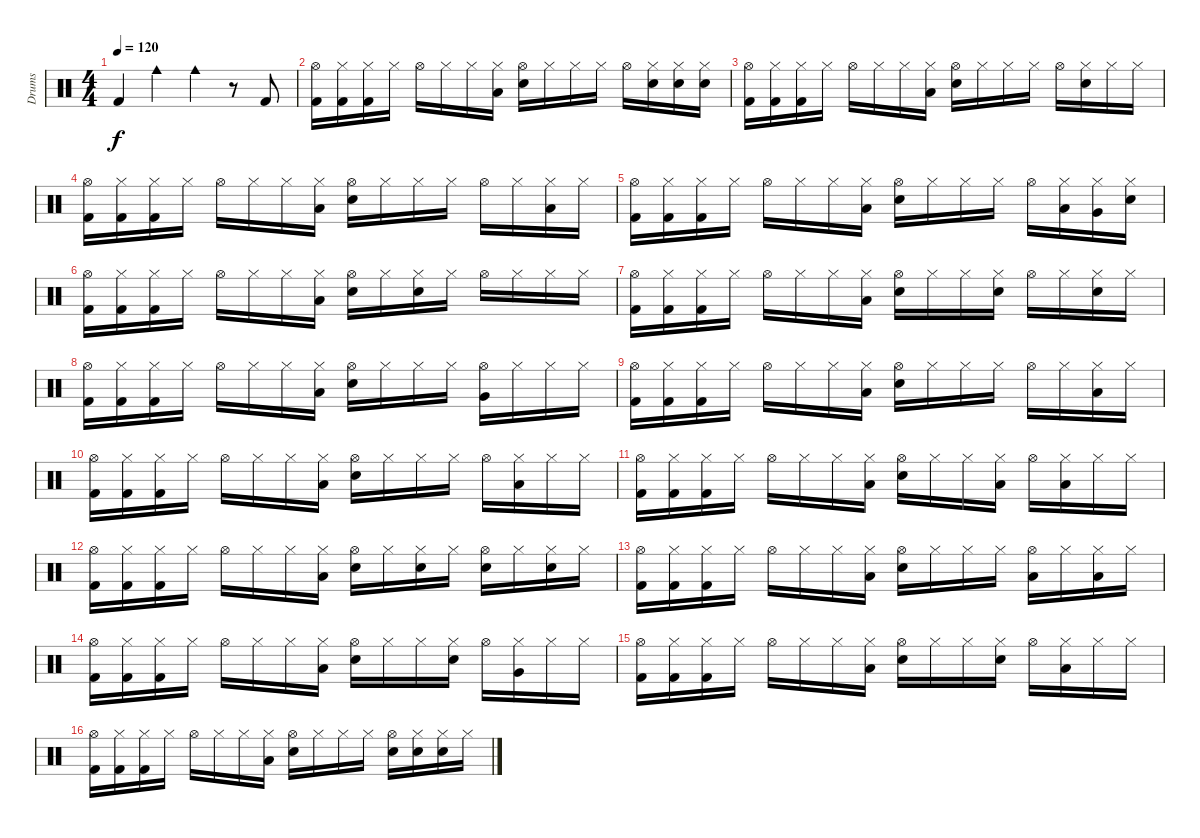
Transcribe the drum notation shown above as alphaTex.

\track ("Drums" "Drums") {instrument percussion}
\staff {score}
\articulation defaults
\ts (4 4)
\tempo 120
\clef neutral
\ks c "Kick (hit) 2".4{dy f} "Cowbell medium (hit)".4 "Cowbell medium (hit)".4
r.8 "Kick (hit) 2".8 |
("Kick (hit) 2" "Hi-Hat (open)").16 ("Kick (hit) 2" "Hi-Hat (closed)").16 ("Kick (hit) 2" "Hi-Hat (closed)").16 "Hi-Hat (closed)".16 "Hi-Hat (open)".16 "Hi-Hat (closed)".16 "Hi-Hat (closed)".16 ("Hi-Hat (closed)" "Low Floor Tom (hit)").16 ("Hi-Hat (open)" "Snare (hit) 2").16 "Hi-Hat (closed)".16 "Hi-Hat (closed)".16 "Hi-Hat (closed)".16 "Hi-Hat (open)".16 ("Electric Snare (hit)" "Hi-Hat (closed)").16 ("Snare (hit) 2" "Hi-Hat (closed)").16 ("Snare (hit) 2" "Hi-Hat (closed)").16 |
("Hi-Hat (open)" "Kick (hit) 2").16 ("Kick (hit) 2" "Hi-Hat (closed)").16 ("Kick (hit) 2" "Hi-Hat (closed)").16 "Hi-Hat (closed)".16 "Hi-Hat (open)".16 "Hi-Hat (closed)".16 "Hi-Hat (closed)".16 ("Hi-Hat (closed)" "Low Floor Tom (hit)").16 ("Hi-Hat (open)" "Snare (hit) 2").16 "Hi-Hat (closed)".16 "Hi-Hat (closed)".16 "Hi-Hat (closed)".16 "Hi-Hat (open)".16 ("Snare (hit) 2" "Hi-Hat (closed)").16 "Hi-Hat (closed)".16 "Hi-Hat (closed)".16 |
("Hi-Hat (open)" "Kick (hit) 2").16 ("Kick (hit) 2" "Hi-Hat (closed)").16 ("Kick (hit) 2" "Hi-Hat (closed)").16 "Hi-Hat (closed)".16 "Hi-Hat (open)".16 "Hi-Hat (closed)".16 "Hi-Hat (closed)".16 ("Hi-Hat (closed)" "Low Floor Tom (hit)").16 ("Hi-Hat (open)" "Snare (hit) 2").16 "Hi-Hat (closed)".16 "Hi-Hat (closed)".16 "Hi-Hat (closed)".16 "Hi-Hat (open)".16 "Hi-Hat (closed)".16 ("Low Tom (hit)" "Hi-Hat (closed)").16 "Hi-Hat (closed)".16 |
("Hi-Hat (open)" "Kick (hit) 2").16 ("Kick (hit) 2" "Hi-Hat (closed)").16 ("Kick (hit) 2" "Hi-Hat (closed)").16 "Hi-Hat (closed)".16 "Hi-Hat (open)".16 "Hi-Hat (closed)".16 "Hi-Hat (closed)".16 ("Hi-Hat (closed)" "Low Floor Tom (hit)").16 ("Hi-Hat (open)" "Snare (hit) 2").16 "Hi-Hat (closed)".16 "Hi-Hat (closed)".16 "Hi-Hat (closed)".16 "Hi-Hat (open)".16 ("Low Floor Tom (hit)" "Hi-Hat (closed)").16 ("Very Low Tom (hit)" "Hi-Hat (closed)").16 ("Snare (hit) 2" "Hi-Hat (closed)").16 |
("Hi-Hat (open)" "Kick (hit) 2").16 ("Kick (hit) 2" "Hi-Hat (closed)").16 ("Kick (hit) 2" "Hi-Hat (closed)").16 "Hi-Hat (closed)".16 "Hi-Hat (open)".16 "Hi-Hat (closed)".16 "Hi-Hat (closed)".16 ("Hi-Hat (closed)" "Low Floor Tom (hit)").16 ("Hi-Hat (open)" "Snare (hit) 2").16 "Hi-Hat (closed)".16 ("Electric Snare (hit)" "Hi-Hat (closed)").16 "Hi-Hat (closed)".16 "Hi-Hat (open)".16 "Hi-Hat (closed)".16 "Hi-Hat (closed)".16 "Hi-Hat (closed)".16 |
("Hi-Hat (open)" "Kick (hit) 2").16 ("Kick (hit) 2" "Hi-Hat (closed)").16 ("Kick (hit) 2" "Hi-Hat (closed)").16 "Hi-Hat (closed)".16 "Hi-Hat (open)".16 "Hi-Hat (closed)".16 "Hi-Hat (closed)".16 ("Hi-Hat (closed)" "Low Floor Tom (hit)").16 ("Hi-Hat (open)" "Snare (hit) 2").16 "Hi-Hat (closed)".16 "Hi-Hat (closed)".16 ("Snare (hit) 2" "Hi-Hat (closed)").16 "Hi-Hat (open)".16 "Hi-Hat (closed)".16 ("Snare (hit) 2" "Hi-Hat (closed)").16 "Hi-Hat (closed)".16 |
("Hi-Hat (open)" "Kick (hit) 2").16 ("Kick (hit) 2" "Hi-Hat (closed)").16 ("Kick (hit) 2" "Hi-Hat (closed)").16 "Hi-Hat (closed)".16 "Hi-Hat (open)".16 "Hi-Hat (closed)".16 "Hi-Hat (closed)".16 ("Hi-Hat (closed)" "Low Floor Tom (hit)").16 ("Hi-Hat (open)" "Snare (hit) 2").16 "Hi-Hat (closed)".16 "Hi-Hat (closed)".16 "Hi-Hat (closed)".16 ("Very Low Tom (hit)" "Hi-Hat (open)").16 "Hi-Hat (closed)".16 "Hi-Hat (closed)".16 "Hi-Hat (closed)".16 |
("Hi-Hat (open)" "Kick (hit) 2").16 ("Kick (hit) 2" "Hi-Hat (closed)").16 ("Kick (hit) 2" "Hi-Hat (closed)").16 "Hi-Hat (closed)".16 "Hi-Hat (open)".16 "Hi-Hat (closed)".16 "Hi-Hat (closed)".16 ("Hi-Hat (closed)" "Low Floor Tom (hit)").16 ("Hi-Hat (open)" "Snare (hit) 2").16 "Hi-Hat (closed)".16 "Hi-Hat (closed)".16 "Hi-Hat (closed)".16 "Hi-Hat (open)".16 "Hi-Hat (closed)".16 ("Low Floor Tom (hit)" "Hi-Hat (closed)").16 "Hi-Hat (closed)".16 |
("Hi-Hat (open)" "Kick (hit) 2").16 ("Kick (hit) 2" "Hi-Hat (closed)").16 ("Kick (hit) 2" "Hi-Hat (closed)").16 "Hi-Hat (closed)".16 "Hi-Hat (open)".16 "Hi-Hat (closed)".16 "Hi-Hat (closed)".16 ("Hi-Hat (closed)" "Low Floor Tom (hit)").16 ("Hi-Hat (open)" "Snare (hit) 2").16 "Hi-Hat (closed)".16 "Hi-Hat (closed)".16 "Hi-Hat (closed)".16 "Hi-Hat (open)".16 ("Low Tom (hit)" "Hi-Hat (closed)").16 "Hi-Hat (closed)".16 "Hi-Hat (closed)".16 |
("Hi-Hat (open)" "Kick (hit) 2").16 ("Kick (hit) 2" "Hi-Hat (closed)").16 ("Kick (hit) 2" "Hi-Hat (closed)").16 "Hi-Hat (closed)".16 "Hi-Hat (open)".16 "Hi-Hat (closed)".16 "Hi-Hat (closed)".16 ("Hi-Hat (closed)" "Low Floor Tom (hit)").16 ("Hi-Hat (open)" "Snare (hit) 2").16 "Hi-Hat (closed)".16 "Hi-Hat (closed)".16 ("Low Tom (hit)" "Hi-Hat (closed)").16 "Hi-Hat (open)".16 ("Low Tom (hit)" "Hi-Hat (closed)").16 "Hi-Hat (closed)".16 "Hi-Hat (closed)".16 |
("Hi-Hat (open)" "Kick (hit) 2").16 ("Kick (hit) 2" "Hi-Hat (closed)").16 ("Kick (hit) 2" "Hi-Hat (closed)").16 "Hi-Hat (closed)".16 "Hi-Hat (open)".16 "Hi-Hat (closed)".16 "Hi-Hat (closed)".16 ("Hi-Hat (closed)" "Low Floor Tom (hit)").16 ("Hi-Hat (open)" "Snare (hit) 2").16 "Hi-Hat (closed)".16 ("Electric Snare (hit)" "Hi-Hat (closed)").16 "Hi-Hat (closed)".16 ("Electric Snare (hit)" "Hi-Hat (open)").16 "Hi-Hat (closed)".16 ("Snare (hit) 2" "Hi-Hat (closed)").16 "Hi-Hat (closed)".16 |
("Hi-Hat (open)" "Kick (hit) 2").16 ("Kick (hit) 2" "Hi-Hat (closed)").16 ("Kick (hit) 2" "Hi-Hat (closed)").16 "Hi-Hat (closed)".16 "Hi-Hat (open)".16 "Hi-Hat (closed)".16 "Hi-Hat (closed)".16 ("Hi-Hat (closed)" "Low Floor Tom (hit)").16 ("Hi-Hat (open)" "Snare (hit) 2").16 "Hi-Hat (closed)".16 "Hi-Hat (closed)".16 "Hi-Hat (closed)".16 ("Low Tom (hit)" "Hi-Hat (open)").16 "Hi-Hat (closed)".16 ("Low Floor Tom (hit)" "Hi-Hat (closed)").16 "Hi-Hat (closed)".16 |
("Hi-Hat (open)" "Kick (hit) 2").16 ("Kick (hit) 2" "Hi-Hat (closed)").16 ("Kick (hit) 2" "Hi-Hat (closed)").16 "Hi-Hat (closed)".16 "Hi-Hat (open)".16 "Hi-Hat (closed)".16 "Hi-Hat (closed)".16 ("Hi-Hat (closed)" "Low Floor Tom (hit)").16 ("Hi-Hat (open)" "Snare (hit) 2").16 "Hi-Hat (closed)".16 "Hi-Hat (closed)".16 ("Electric Snare (hit)" "Hi-Hat (closed)").16 "Hi-Hat (open)".16 ("Very Low Tom (hit)" "Hi-Hat (closed)").16 "Hi-Hat (closed)".16 "Hi-Hat (closed)".16 |
("Hi-Hat (open)" "Kick (hit) 2").16 ("Kick (hit) 2" "Hi-Hat (closed)").16 ("Kick (hit) 2" "Hi-Hat (closed)").16 "Hi-Hat (closed)".16 "Hi-Hat (open)".16 "Hi-Hat (closed)".16 "Hi-Hat (closed)".16 ("Hi-Hat (closed)" "Low Floor Tom (hit)").16 ("Hi-Hat (open)" "Snare (hit) 2").16 "Hi-Hat (closed)".16 "Hi-Hat (closed)".16 ("Electric Snare (hit)" "Hi-Hat (closed)").16 "Hi-Hat (open)".16 ("Low Tom (hit)" "Hi-Hat (closed)").16 "Hi-Hat (closed)".16 "Hi-Hat (closed)".16 |
("Hi-Hat (open)" "Kick (hit) 2").16 ("Kick (hit) 2" "Hi-Hat (closed)").16 ("Kick (hit) 2" "Hi-Hat (closed)").16 "Hi-Hat (closed)".16 "Hi-Hat (open)".16 "Hi-Hat (closed)".16 "Hi-Hat (closed)".16 ("Hi-Hat (closed)" "Low Floor Tom (hit)").16 ("Hi-Hat (open)" "Snare (hit) 2").16 "Hi-Hat (closed)".16 "Hi-Hat (closed)".16 "Hi-Hat (closed)".16 ("Electric Snare (hit)" "Hi-Hat (open)").16 ("Electric Snare (hit)" "Hi-Hat (closed)").16 ("Electric Snare (hit)" "Hi-Hat (closed)").16 "Hi-Hat (closed)".16
